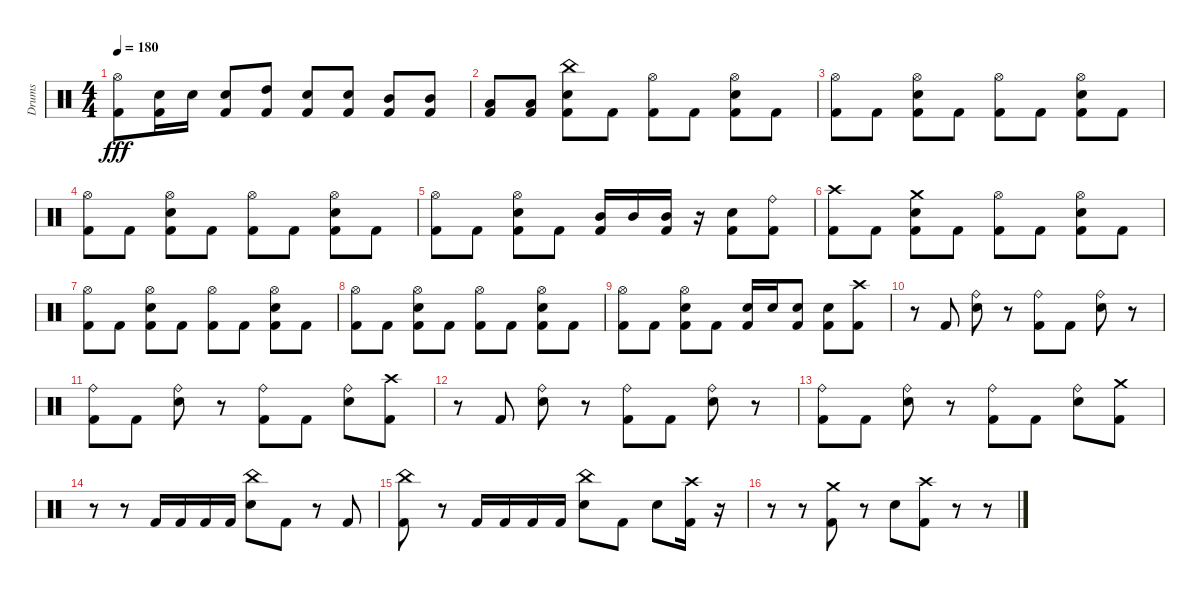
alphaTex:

\track ("Drums" "Drums") {instrument percussion}
\staff {score}
\articulation defaults
\ts (4 4)
\tempo 180
\clef neutral
\ks c
("Hi-Hat (open)" "Kick (hit) 2").8{dy fff} ("Electric Snare (hit)" "Kick (hit) 2").16 "Electric Snare (hit)".16 ("Electric Snare (hit)" "Kick (hit) 2").8 ("High Tom (hit)" "Kick (hit) 2").8 ("Electric Snare (hit)" "Kick (hit) 2").8 ("Electric Snare (hit)" "Kick (hit) 2").8 ("Mid Tom (hit)" "Kick (hit) 2").8 ("Mid Tom (hit)" "Kick (hit) 2").8 |
("Low Tom (hit)" "Kick (hit) 2").8 ("Low Tom (hit)" "Kick (hit) 2").8 ("China (hit)" "Electric Snare (hit)" "Kick (hit) 2").8 "Kick (hit) 2".8 ("Hi-Hat (open)" "Kick (hit) 2").8 "Kick (hit) 2".8 ("Hi-Hat (open)" "Electric Snare (hit)" "Kick (hit) 2").8 "Kick (hit) 2".8 |
("Hi-Hat (open)" "Kick (hit) 2").8 "Kick (hit) 2".8 ("Hi-Hat (open)" "Electric Snare (hit)" "Kick (hit) 2").8 "Kick (hit) 2".8 ("Hi-Hat (open)" "Kick (hit) 2").8 "Kick (hit) 2".8 ("Hi-Hat (open)" "Electric Snare (hit)" "Kick (hit) 2").8 "Kick (hit) 2".8 |
("Hi-Hat (open)" "Kick (hit) 2").8 "Kick (hit) 2".8 ("Hi-Hat (open)" "Electric Snare (hit)" "Kick (hit) 2").8 "Kick (hit) 2".8 ("Hi-Hat (open)" "Kick (hit) 2").8 "Kick (hit) 2".8 ("Hi-Hat (open)" "Electric Snare (hit)" "Kick (hit) 2").8 "Kick (hit) 2".8 |
("Hi-Hat (open)" "Kick (hit) 2").8 "Kick (hit) 2".8 ("Hi-Hat (open)" "Electric Snare (hit)" "Kick (hit) 2").8 "Kick (hit) 2".8 ("Mid Tom (hit)" "Kick (hit) 2").16 "Mid Tom (hit)".16 ("Mid Tom (hit)" "Kick (hit) 2").16 r.16 ("Electric Snare (hit)" "Kick (hit) 2").8 ("Ride (bell)" "Kick (hit) 2").8 |
("Crash high (hit)" "Kick (hit) 2").8 "Kick (hit) 2".8 ("Crash medium (hit)" "Electric Snare (hit)" "Kick (hit) 2").8 "Kick (hit) 2".8 ("Hi-Hat (open)" "Kick (hit) 2").8 "Kick (hit) 2".8 ("Hi-Hat (open)" "Electric Snare (hit)" "Kick (hit) 2").8 "Kick (hit) 2".8 |
("Hi-Hat (open)" "Kick (hit) 2").8 "Kick (hit) 2".8 ("Hi-Hat (open)" "Electric Snare (hit)" "Kick (hit) 2").8 "Kick (hit) 2".8 ("Hi-Hat (open)" "Kick (hit) 2").8 "Kick (hit) 2".8 ("Hi-Hat (open)" "Electric Snare (hit)" "Kick (hit) 2").8 "Kick (hit) 2".8 |
("Hi-Hat (open)" "Kick (hit) 2").8 "Kick (hit) 2".8 ("Hi-Hat (open)" "Electric Snare (hit)" "Kick (hit) 2").8 "Kick (hit) 2".8 ("Hi-Hat (open)" "Kick (hit) 2").8 "Kick (hit) 2".8 ("Hi-Hat (open)" "Electric Snare (hit)" "Kick (hit) 2").8 "Kick (hit) 2".8 |
("Hi-Hat (open)" "Kick (hit) 2").8 "Kick (hit) 2".8 ("Hi-Hat (open)" "Electric Snare (hit)" "Kick (hit) 2").8 "Kick (hit) 2".8 ("Electric Snare (hit)" "Kick (hit) 2").16 "Electric Snare (hit)".16 ("Electric Snare (hit)" "Kick (hit) 2").8 ("Electric Snare (hit)" "Kick (hit) 2").8 ("Crash high (hit)" "Kick (hit) 2").8 |
r.8 "Kick (hit) 2".8 ("Ride (bell)" "Electric Snare (hit)").8 r.8 ("Ride (bell)" "Kick (hit) 2").8 "Kick (hit) 2".8 ("Ride (bell)" "Electric Snare (hit)").8 r.8 |
("Ride (bell)" "Kick (hit) 2").8 "Kick (hit) 2".8 ("Ride (bell)" "Electric Snare (hit)").8 r.8 ("Ride (bell)" "Kick (hit) 2").8 "Kick (hit) 2".8 ("Ride (bell)" "Electric Snare (hit)").8 ("Crash high (hit)" "Kick (hit) 2").8 |
r.8 "Kick (hit) 2".8 ("Ride (bell)" "Electric Snare (hit)").8 r.8 ("Ride (bell)" "Kick (hit) 2").8 "Kick (hit) 2".8 ("Ride (bell)" "Electric Snare (hit)").8 r.8 |
("Ride (bell)" "Kick (hit) 2").8 "Kick (hit) 2".8 ("Ride (bell)" "Electric Snare (hit)").8 r.8 ("Ride (bell)" "Kick (hit) 2").8 "Kick (hit) 2".8 ("Ride (bell)" "Electric Snare (hit)").8 ("Crash medium (hit)" "Kick (hit) 2").8 |
r.8 r.8 "Kick (hit) 2".16 "Kick (hit) 2".16 "Kick (hit) 2".16 "Kick (hit) 2".16 ("China (hit)" "Electric Snare (hit)").8 "Kick (hit) 2".8 r.8 "Kick (hit) 2".8 |
("China (hit)" "Kick (hit) 2").8 r.8 "Kick (hit) 2".16 "Kick (hit) 2".16 "Kick (hit) 2".16 "Kick (hit) 2".16 ("China (hit)" "Electric Snare (hit)").8 "Kick (hit) 2".8 "Electric Snare (hit)".8 ("Crash high (hit)" "Kick (hit) 2").16 r.16 |
r.8 r.8 ("Crash medium (hit)" "Kick (hit) 2").8 r.8 "Electric Snare (hit)".8 ("Crash high (hit)" "Kick (hit) 2").8 r.8 r.8
